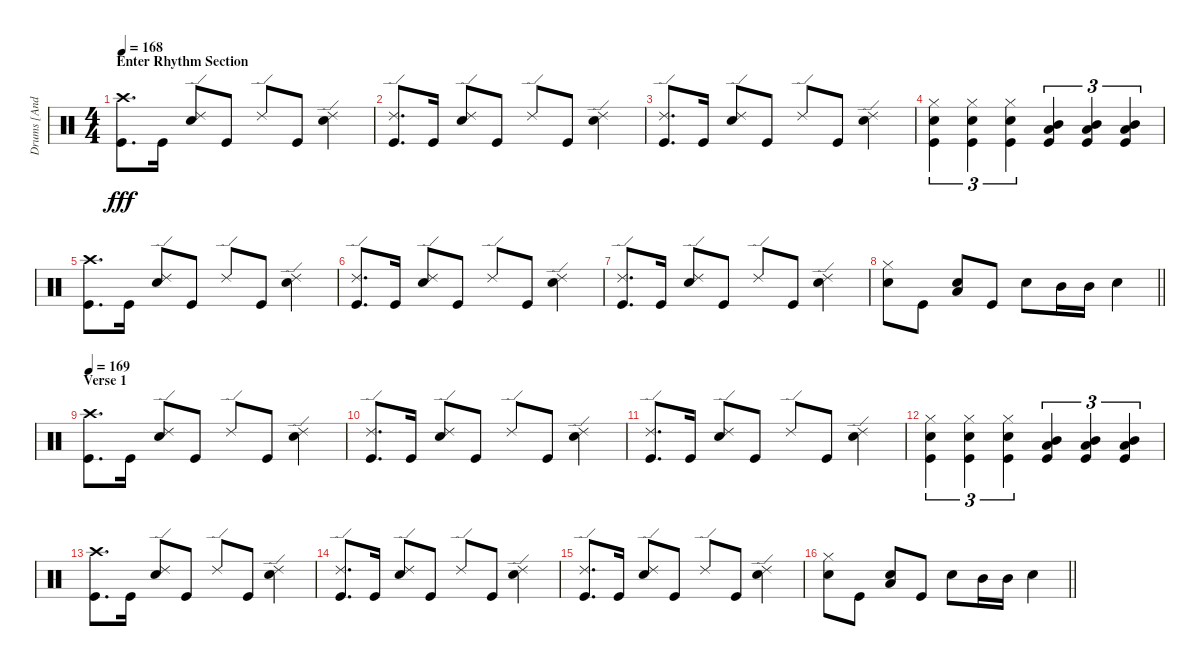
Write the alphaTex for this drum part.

\track ("Drums [Andrew Forsman]" "Drums [And") {instrument percussion}
\staff {score}
\articulation defaults
\ts (4 4)
\section ("" "Enter Rhythm Section")
\tempo 168
\clef neutral
\ks c
("Crash high (hit)" "Kick (hit)").8{d dy fff} "Kick (hit)".16 ("Ride (edge) 2" "Snare (hit) 2").8 "Kick (hit)".8 "Ride (edge) 2".8 "Kick (hit)".8 ("Ride (edge) 2" "Snare (hit) 2").4 |
("Ride (edge) 2" "Kick (hit)").8{d} "Kick (hit)".16 ("Ride (edge) 2" "Snare (hit) 2").8 "Kick (hit)".8 "Ride (edge) 2".8 "Kick (hit)".8 ("Ride (edge) 2" "Snare (hit) 2").4 |
("Ride (edge) 2" "Kick (hit)").8{d} "Kick (hit)".16 ("Ride (edge) 2" "Snare (hit) 2").8 "Kick (hit)".8 "Ride (edge) 2".8 "Kick (hit)".8 ("Ride (edge) 2" "Snare (hit) 2").4 |
("Hi-Hat (closed)" "Snare (hit) 2" "Kick (hit)").4{tu (3 2)} ("Hi-Hat (closed)" "Snare (hit) 2" "Kick (hit)").4{tu (3 2)} ("Hi-Hat (closed)" "Snare (hit) 2" "Kick (hit)").4{tu (3 2)} ("Mid Tom (hit)" "Low Tom (hit)" "Kick (hit)").4{tu (3 2)} ("Mid Tom (hit)" "Low Tom (hit)" "Kick (hit)").4{tu (3 2)} ("Mid Tom (hit)" "Low Tom (hit)" "Kick (hit)").4{tu (3 2)} |
("Crash high (hit)" "Kick (hit)").8{d} "Kick (hit)".16 ("Ride (edge) 2" "Snare (hit) 2").8 "Kick (hit)".8 "Ride (edge) 2".8 "Kick (hit)".8 ("Ride (edge) 2" "Snare (hit) 2").4 |
("Ride (edge) 2" "Kick (hit)").8{d} "Kick (hit)".16 ("Ride (edge) 2" "Snare (hit) 2").8 "Kick (hit)".8 "Ride (edge) 2".8 "Kick (hit)".8 ("Ride (edge) 2" "Snare (hit) 2").4 |
("Ride (edge) 2" "Kick (hit)").8{d} "Kick (hit)".16 ("Ride (edge) 2" "Snare (hit) 2").8 "Kick (hit)".8 "Ride (edge) 2".8 "Kick (hit)".8 ("Ride (edge) 2" "Snare (hit) 2").4 |
\barLineRight lightlight
("Snare (hit) 2" "Hi-Hat (closed)").8 "Kick (hit)".8 ("Snare (hit) 2" "Low Tom (hit)").8 "Kick (hit)".8 "Snare (hit) 2".8 "Mid Tom (hit)".16 "Mid Tom (hit)".16 "Snare (hit) 2".4 |
\section ("" "Verse 1")
\tempo 169
("Crash high (hit)" "Kick (hit)").8{d} "Kick (hit)".16 ("Ride (edge) 2" "Snare (hit) 2").8 "Kick (hit)".8 "Ride (edge) 2".8 "Kick (hit)".8 ("Ride (edge) 2" "Snare (hit) 2").4 |
("Ride (edge) 2" "Kick (hit)").8{d} "Kick (hit)".16 ("Ride (edge) 2" "Snare (hit) 2").8 "Kick (hit)".8 "Ride (edge) 2".8 "Kick (hit)".8 ("Ride (edge) 2" "Snare (hit) 2").4 |
("Ride (edge) 2" "Kick (hit)").8{d} "Kick (hit)".16 ("Ride (edge) 2" "Snare (hit) 2").8 "Kick (hit)".8 "Ride (edge) 2".8 "Kick (hit)".8 ("Ride (edge) 2" "Snare (hit) 2").4 |
("Hi-Hat (closed)" "Snare (hit) 2" "Kick (hit)").4{tu (3 2)} ("Hi-Hat (closed)" "Snare (hit) 2" "Kick (hit)").4{tu (3 2)} ("Hi-Hat (closed)" "Snare (hit) 2" "Kick (hit)").4{tu (3 2)} ("Mid Tom (hit)" "Low Tom (hit)" "Kick (hit)").4{tu (3 2)} ("Mid Tom (hit)" "Low Tom (hit)" "Kick (hit)").4{tu (3 2)} ("Mid Tom (hit)" "Low Tom (hit)" "Kick (hit)").4{tu (3 2)} |
("Crash high (hit)" "Kick (hit)").8{d} "Kick (hit)".16 ("Ride (edge) 2" "Snare (hit) 2").8 "Kick (hit)".8 "Ride (edge) 2".8 "Kick (hit)".8 ("Ride (edge) 2" "Snare (hit) 2").4 |
("Ride (edge) 2" "Kick (hit)").8{d} "Kick (hit)".16 ("Ride (edge) 2" "Snare (hit) 2").8 "Kick (hit)".8 "Ride (edge) 2".8 "Kick (hit)".8 ("Ride (edge) 2" "Snare (hit) 2").4 |
("Ride (edge) 2" "Kick (hit)").8{d} "Kick (hit)".16 ("Ride (edge) 2" "Snare (hit) 2").8 "Kick (hit)".8 "Ride (edge) 2".8 "Kick (hit)".8 ("Ride (edge) 2" "Snare (hit) 2").4 |
\barLineRight lightlight
("Snare (hit) 2" "Hi-Hat (closed)").8 "Kick (hit)".8 ("Snare (hit) 2" "Low Tom (hit)").8 "Kick (hit)".8 "Snare (hit) 2".8 "Mid Tom (hit)".16 "Mid Tom (hit)".16 "Snare (hit) 2".4
